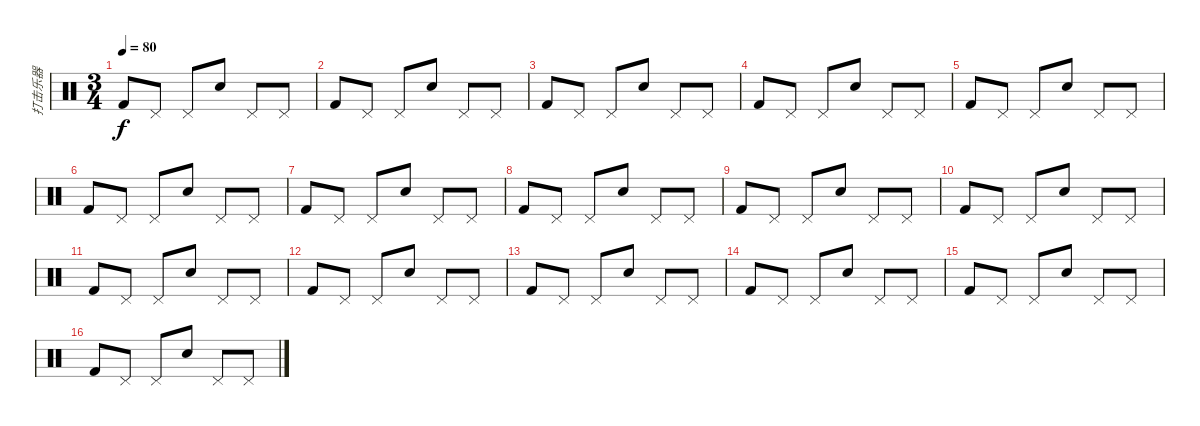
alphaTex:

\track ("打击乐器" "打击乐器") {instrument percussion}
\staff {score}
\articulation defaults
\ts (3 4)
\tempo 80
\clef neutral
\ks c "Kick (hit) 2".8{dy f volume 12} "Pedal Hi-Hat (hit)".8{volume 6} "Pedal Hi-Hat (hit)".8{volume 7} "Snare (hit) 2".8{volume 12} "Pedal Hi-Hat (hit)".8{volume 7} "Pedal Hi-Hat (hit)".8{volume 7}
|
"Kick (hit) 2".8{volume 12} "Pedal Hi-Hat (hit)".8{volume 6} "Pedal Hi-Hat (hit)".8{volume 7} "Snare (hit) 2".8{volume 12} "Pedal Hi-Hat (hit)".8{volume 7} "Pedal Hi-Hat (hit)".8{volume 7} |
"Kick (hit) 2".8{volume 12} "Pedal Hi-Hat (hit)".8{volume 6} "Pedal Hi-Hat (hit)".8{volume 7} "Snare (hit) 2".8{volume 12} "Pedal Hi-Hat (hit)".8{volume 7} "Pedal Hi-Hat (hit)".8{volume 7} |
"Kick (hit) 2".8{volume 12} "Pedal Hi-Hat (hit)".8{volume 6} "Pedal Hi-Hat (hit)".8{volume 7} "Snare (hit) 2".8{volume 12} "Pedal Hi-Hat (hit)".8{volume 7} "Pedal Hi-Hat (hit)".8{volume 7} |
"Kick (hit) 2".8{volume 12} "Pedal Hi-Hat (hit)".8{volume 6} "Pedal Hi-Hat (hit)".8{volume 7} "Snare (hit) 2".8{volume 12} "Pedal Hi-Hat (hit)".8{volume 7} "Pedal Hi-Hat (hit)".8{volume 7} |
"Kick (hit) 2".8{volume 12} "Pedal Hi-Hat (hit)".8{volume 6} "Pedal Hi-Hat (hit)".8{volume 7} "Snare (hit) 2".8{volume 12} "Pedal Hi-Hat (hit)".8{volume 7} "Pedal Hi-Hat (hit)".8{volume 7} |
"Kick (hit) 2".8{volume 12} "Pedal Hi-Hat (hit)".8{volume 6} "Pedal Hi-Hat (hit)".8{volume 7} "Snare (hit) 2".8{volume 12} "Pedal Hi-Hat (hit)".8{volume 7} "Pedal Hi-Hat (hit)".8{volume 7} |
"Kick (hit) 2".8{volume 12} "Pedal Hi-Hat (hit)".8{volume 6} "Pedal Hi-Hat (hit)".8{volume 7} "Snare (hit) 2".8{volume 12} "Pedal Hi-Hat (hit)".8{volume 7} "Pedal Hi-Hat (hit)".8{volume 7} |
"Kick (hit) 2".8{volume 12} "Pedal Hi-Hat (hit)".8{volume 6} "Pedal Hi-Hat (hit)".8{volume 7} "Snare (hit) 2".8{volume 12} "Pedal Hi-Hat (hit)".8{volume 7} "Pedal Hi-Hat (hit)".8{volume 7} |
"Kick (hit) 2".8{volume 12} "Pedal Hi-Hat (hit)".8{volume 6} "Pedal Hi-Hat (hit)".8{volume 7} "Snare (hit) 2".8{volume 12} "Pedal Hi-Hat (hit)".8{volume 7} "Pedal Hi-Hat (hit)".8{volume 7} |
"Kick (hit) 2".8{volume 12} "Pedal Hi-Hat (hit)".8{volume 6} "Pedal Hi-Hat (hit)".8{volume 7} "Snare (hit) 2".8{volume 12} "Pedal Hi-Hat (hit)".8{volume 7} "Pedal Hi-Hat (hit)".8{volume 7} |
"Kick (hit) 2".8{volume 12} "Pedal Hi-Hat (hit)".8{volume 6} "Pedal Hi-Hat (hit)".8{volume 7} "Snare (hit) 2".8{volume 12} "Pedal Hi-Hat (hit)".8{volume 7} "Pedal Hi-Hat (hit)".8{volume 7} |
"Kick (hit) 2".8{volume 12} "Pedal Hi-Hat (hit)".8{volume 6} "Pedal Hi-Hat (hit)".8{volume 7} "Snare (hit) 2".8{volume 12} "Pedal Hi-Hat (hit)".8{volume 7} "Pedal Hi-Hat (hit)".8{volume 7} |
"Kick (hit) 2".8{volume 12} "Pedal Hi-Hat (hit)".8{volume 6} "Pedal Hi-Hat (hit)".8{volume 7} "Snare (hit) 2".8{volume 12} "Pedal Hi-Hat (hit)".8{volume 7} "Pedal Hi-Hat (hit)".8{volume 7} |
"Kick (hit) 2".8{volume 12} "Pedal Hi-Hat (hit)".8{volume 6} "Pedal Hi-Hat (hit)".8{volume 7} "Snare (hit) 2".8{volume 12} "Pedal Hi-Hat (hit)".8{volume 7} "Pedal Hi-Hat (hit)".8{volume 7} |
"Kick (hit) 2".8{volume 12} "Pedal Hi-Hat (hit)".8{volume 6} "Pedal Hi-Hat (hit)".8{volume 7} "Snare (hit) 2".8{volume 12} "Pedal Hi-Hat (hit)".8{volume 7} "Pedal Hi-Hat (hit)".8{volume 7}
